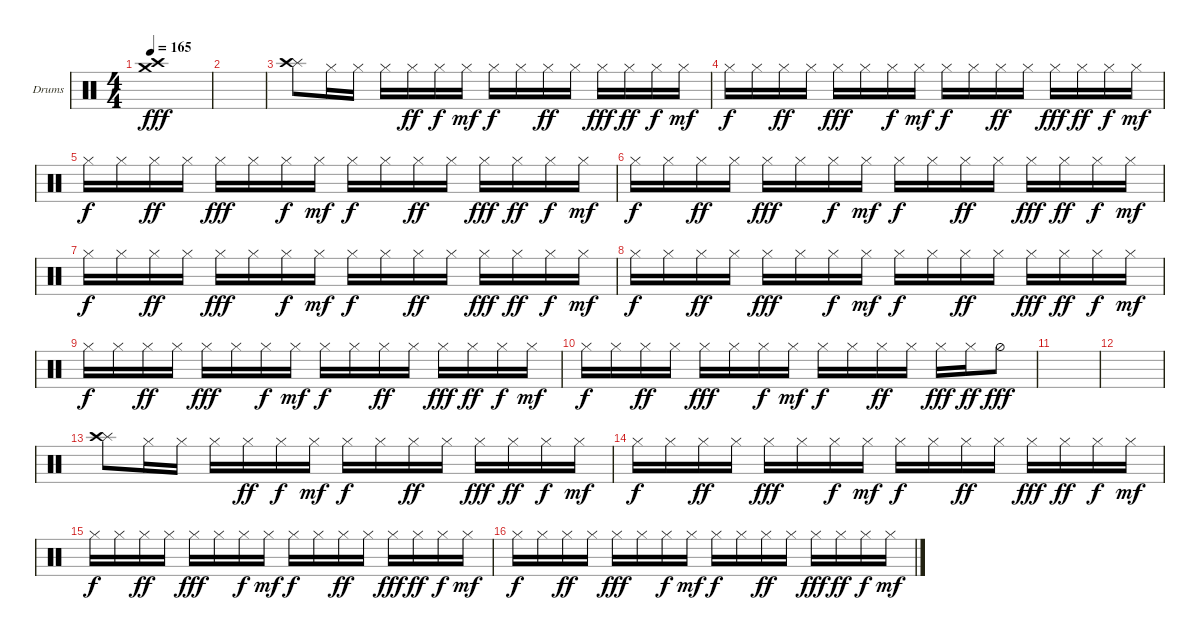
\defaultSystemsLayout 4
\bracketExtendMode groupsimilarinstruments
\firstSystemTrackNameOrientation horizontal
\otherSystemsTrackNameOrientation horizontal
\track ("Helders" "Drums") {instrument percussion}
\staff {score}
\articulation defaults
\ts (4 4)
\tempo 165
\clef neutral
\ks c
("Crash medium (hit)" "Crash high (hit)").1{dy fff} |
|
("Splash (hit)" "Crash high (hit)").8 "Hi-Hat (closed)".16 "Hi-Hat (closed)".16 "Hi-Hat (closed)".16 "Hi-Hat (closed)".16{dy ff} "Hi-Hat (closed)".16{dy f} "Hi-Hat (closed)".16{dy mf} "Hi-Hat (closed)".16{dy f} "Hi-Hat (closed)".16 "Hi-Hat (closed)".16{dy ff} "Hi-Hat (closed)".16 "Hi-Hat (closed)".16{dy fff} "Hi-Hat (closed)".16{dy ff} "Hi-Hat (closed)".16{dy f} "Hi-Hat (closed)".16{dy mf} |
"Hi-Hat (closed)".16{dy f} "Hi-Hat (closed)".16 "Hi-Hat (closed)".16{dy ff} "Hi-Hat (closed)".16 "Hi-Hat (closed)".16{dy fff} "Hi-Hat (closed)".16 "Hi-Hat (closed)".16{dy f} "Hi-Hat (closed)".16{dy mf} "Hi-Hat (closed)".16{dy f} "Hi-Hat (closed)".16 "Hi-Hat (closed)".16{dy ff} "Hi-Hat (closed)".16 "Hi-Hat (closed)".16{dy fff} "Hi-Hat (closed)".16{dy ff} "Hi-Hat (closed)".16{dy f} "Hi-Hat (closed)".16{dy mf} |
"Hi-Hat (closed)".16{dy f} "Hi-Hat (closed)".16 "Hi-Hat (closed)".16{dy ff} "Hi-Hat (closed)".16 "Hi-Hat (closed)".16{dy fff} "Hi-Hat (closed)".16 "Hi-Hat (closed)".16{dy f} "Hi-Hat (closed)".16{dy mf} "Hi-Hat (closed)".16{dy f} "Hi-Hat (closed)".16 "Hi-Hat (closed)".16{dy ff} "Hi-Hat (closed)".16 "Hi-Hat (closed)".16{dy fff} "Hi-Hat (closed)".16{dy ff} "Hi-Hat (closed)".16{dy f} "Hi-Hat (closed)".16{dy mf} |
"Hi-Hat (closed)".16{dy f} "Hi-Hat (closed)".16 "Hi-Hat (closed)".16{dy ff} "Hi-Hat (closed)".16 "Hi-Hat (closed)".16{dy fff} "Hi-Hat (closed)".16 "Hi-Hat (closed)".16{dy f} "Hi-Hat (closed)".16{dy mf} "Hi-Hat (closed)".16{dy f} "Hi-Hat (closed)".16 "Hi-Hat (closed)".16{dy ff} "Hi-Hat (closed)".16 "Hi-Hat (closed)".16{dy fff} "Hi-Hat (closed)".16{dy ff} "Hi-Hat (closed)".16{dy f} "Hi-Hat (closed)".16{dy mf} |
"Hi-Hat (closed)".16{dy f} "Hi-Hat (closed)".16 "Hi-Hat (closed)".16{dy ff} "Hi-Hat (closed)".16 "Hi-Hat (closed)".16{dy fff} "Hi-Hat (closed)".16 "Hi-Hat (closed)".16{dy f} "Hi-Hat (closed)".16{dy mf} "Hi-Hat (closed)".16{dy f} "Hi-Hat (closed)".16 "Hi-Hat (closed)".16{dy ff} "Hi-Hat (closed)".16 "Hi-Hat (closed)".16{dy fff} "Hi-Hat (closed)".16{dy ff} "Hi-Hat (closed)".16{dy f} "Hi-Hat (closed)".16{dy mf} |
"Hi-Hat (closed)".16{dy f} "Hi-Hat (closed)".16 "Hi-Hat (closed)".16{dy ff} "Hi-Hat (closed)".16 "Hi-Hat (closed)".16{dy fff} "Hi-Hat (closed)".16 "Hi-Hat (closed)".16{dy f} "Hi-Hat (closed)".16{dy mf} "Hi-Hat (closed)".16{dy f} "Hi-Hat (closed)".16 "Hi-Hat (closed)".16{dy ff} "Hi-Hat (closed)".16 "Hi-Hat (closed)".16{dy fff} "Hi-Hat (closed)".16{dy ff} "Hi-Hat (closed)".16{dy f} "Hi-Hat (closed)".16{dy mf} |
"Hi-Hat (closed)".16{dy f} "Hi-Hat (closed)".16 "Hi-Hat (closed)".16{dy ff} "Hi-Hat (closed)".16 "Hi-Hat (closed)".16{dy fff} "Hi-Hat (closed)".16 "Hi-Hat (closed)".16{dy f} "Hi-Hat (closed)".16{dy mf} "Hi-Hat (closed)".16{dy f} "Hi-Hat (closed)".16 "Hi-Hat (closed)".16{dy ff} "Hi-Hat (closed)".16 "Hi-Hat (closed)".16{dy fff} "Hi-Hat (closed)".16{dy ff} "Hi-Hat (closed)".16{dy f} "Hi-Hat (closed)".16{dy mf} |
"Hi-Hat (closed)".16{dy f} "Hi-Hat (closed)".16 "Hi-Hat (closed)".16{dy ff} "Hi-Hat (closed)".16 "Hi-Hat (closed)".16{dy fff} "Hi-Hat (closed)".16 "Hi-Hat (closed)".16{dy f} "Hi-Hat (closed)".16{dy mf} "Hi-Hat (closed)".16{dy f} "Hi-Hat (closed)".16 "Hi-Hat (closed)".16{dy ff} "Hi-Hat (closed)".16 "Hi-Hat (closed)".16{dy fff} "Hi-Hat (closed)".16{dy ff} "Hi-Hat (half)".8{dy fff} |
|
|
("Splash (hit)" "Crash high (hit)").8 "Hi-Hat (closed)".16 "Hi-Hat (closed)".16 "Hi-Hat (closed)".16 "Hi-Hat (closed)".16{dy ff} "Hi-Hat (closed)".16{dy f} "Hi-Hat (closed)".16{dy mf} "Hi-Hat (closed)".16{dy f} "Hi-Hat (closed)".16 "Hi-Hat (closed)".16{dy ff} "Hi-Hat (closed)".16 "Hi-Hat (closed)".16{dy fff} "Hi-Hat (closed)".16{dy ff} "Hi-Hat (closed)".16{dy f} "Hi-Hat (closed)".16{dy mf} |
"Hi-Hat (closed)".16{dy f} "Hi-Hat (closed)".16 "Hi-Hat (closed)".16{dy ff} "Hi-Hat (closed)".16 "Hi-Hat (closed)".16{dy fff} "Hi-Hat (closed)".16 "Hi-Hat (closed)".16{dy f} "Hi-Hat (closed)".16{dy mf} "Hi-Hat (closed)".16{dy f} "Hi-Hat (closed)".16 "Hi-Hat (closed)".16{dy ff} "Hi-Hat (closed)".16 "Hi-Hat (closed)".16{dy fff} "Hi-Hat (closed)".16{dy ff} "Hi-Hat (closed)".16{dy f} "Hi-Hat (closed)".16{dy mf} |
"Hi-Hat (closed)".16{dy f} "Hi-Hat (closed)".16 "Hi-Hat (closed)".16{dy ff} "Hi-Hat (closed)".16 "Hi-Hat (closed)".16{dy fff} "Hi-Hat (closed)".16 "Hi-Hat (closed)".16{dy f} "Hi-Hat (closed)".16{dy mf} "Hi-Hat (closed)".16{dy f} "Hi-Hat (closed)".16 "Hi-Hat (closed)".16{dy ff} "Hi-Hat (closed)".16 "Hi-Hat (closed)".16{dy fff} "Hi-Hat (closed)".16{dy ff} "Hi-Hat (closed)".16{dy f} "Hi-Hat (closed)".16{dy mf} |
"Hi-Hat (closed)".16{dy f} "Hi-Hat (closed)".16 "Hi-Hat (closed)".16{dy ff} "Hi-Hat (closed)".16 "Hi-Hat (closed)".16{dy fff} "Hi-Hat (closed)".16 "Hi-Hat (closed)".16{dy f} "Hi-Hat (closed)".16{dy mf} "Hi-Hat (closed)".16{dy f} "Hi-Hat (closed)".16 "Hi-Hat (closed)".16{dy ff} "Hi-Hat (closed)".16 "Hi-Hat (closed)".16{dy fff} "Hi-Hat (closed)".16{dy ff} "Hi-Hat (closed)".16{dy f} "Hi-Hat (closed)".16{dy mf}
